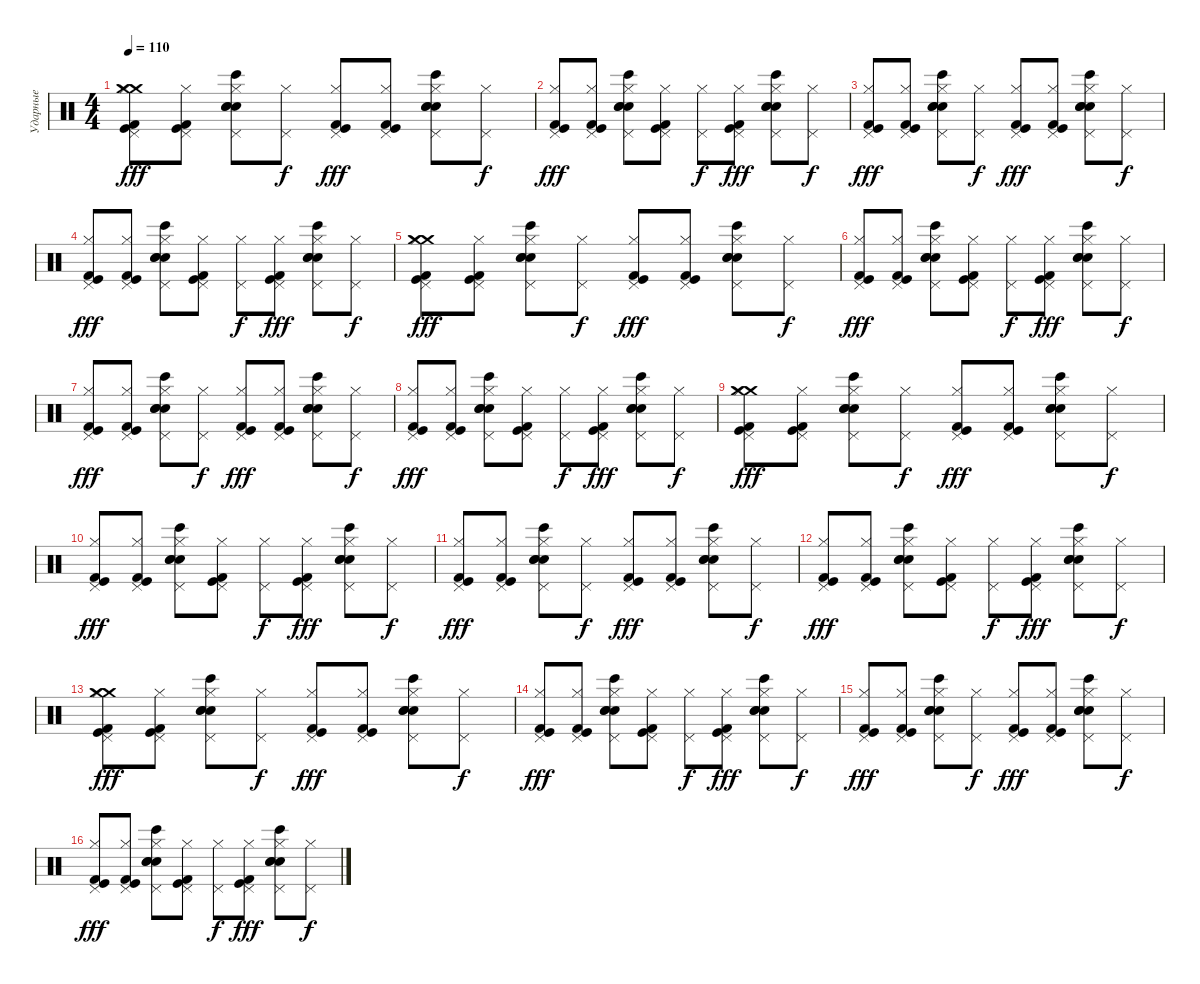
\track ("Ударные" "Ударные") {instrument percussion}
\staff {score}
\articulation defaults
\ts (4 4)
\tempo 110
\clef neutral
\ks c
("Crash medium (hit)" "Crash medium (hit)" "Kick (hit) 2" "Kick (hit)" "Hi-Hat (closed)" "Pedal Hi-Hat (hit)").8{dy fff} ("Kick (hit) 2" "Kick (hit)" "Hi-Hat (closed)" "Pedal Hi-Hat (hit)").8 ("Bongo High (hit)" "Snare (hit) 2" "Snare (hit) 2" "Snare (hit) 2" "Hi-Hat (closed)" "Pedal Hi-Hat (hit)").8 ("Hi-Hat (closed)" "Pedal Hi-Hat (hit)").8{dy f} ("Kick (hit) 2" "Kick (hit)" "Hi-Hat (closed)" "Pedal Hi-Hat (hit)").8{dy fff} ("Kick (hit) 2" "Kick (hit)" "Hi-Hat (closed)" "Pedal Hi-Hat (hit)").8 ("Bongo High (hit)" "Snare (hit) 2" "Snare (hit) 2" "Snare (hit) 2" "Hi-Hat (closed)" "Pedal Hi-Hat (hit)").8 ("Hi-Hat (closed)" "Pedal Hi-Hat (hit)").8{dy f} |
("Kick (hit) 2" "Kick (hit)" "Hi-Hat (closed)" "Pedal Hi-Hat (hit)").8{dy fff} ("Kick (hit) 2" "Kick (hit)" "Hi-Hat (closed)" "Pedal Hi-Hat (hit)").8 ("Bongo High (hit)" "Snare (hit) 2" "Snare (hit) 2" "Snare (hit) 2" "Hi-Hat (closed)" "Pedal Hi-Hat (hit)").8 ("Kick (hit) 2" "Kick (hit)" "Hi-Hat (closed)" "Pedal Hi-Hat (hit)").8 ("Hi-Hat (closed)" "Pedal Hi-Hat (hit)").8{dy f} ("Kick (hit) 2" "Kick (hit)" "Hi-Hat (closed)" "Pedal Hi-Hat (hit)").8{dy fff} ("Bongo High (hit)" "Snare (hit) 2" "Snare (hit) 2" "Snare (hit) 2" "Hi-Hat (closed)" "Pedal Hi-Hat (hit)").8 ("Hi-Hat (closed)" "Pedal Hi-Hat (hit)").8{dy f} |
("Kick (hit) 2" "Kick (hit)" "Hi-Hat (closed)" "Pedal Hi-Hat (hit)").8{dy fff} ("Kick (hit) 2" "Kick (hit)" "Hi-Hat (closed)" "Pedal Hi-Hat (hit)").8 ("Bongo High (hit)" "Snare (hit) 2" "Snare (hit) 2" "Snare (hit) 2" "Hi-Hat (closed)" "Pedal Hi-Hat (hit)").8 ("Hi-Hat (closed)" "Pedal Hi-Hat (hit)").8{dy f} ("Kick (hit) 2" "Kick (hit)" "Hi-Hat (closed)" "Pedal Hi-Hat (hit)").8{dy fff} ("Kick (hit) 2" "Kick (hit)" "Hi-Hat (closed)" "Pedal Hi-Hat (hit)").8 ("Bongo High (hit)" "Snare (hit) 2" "Snare (hit) 2" "Snare (hit) 2" "Hi-Hat (closed)" "Pedal Hi-Hat (hit)").8 ("Hi-Hat (closed)" "Pedal Hi-Hat (hit)").8{dy f} |
("Kick (hit) 2" "Kick (hit)" "Hi-Hat (closed)" "Pedal Hi-Hat (hit)").8{dy fff} ("Kick (hit) 2" "Kick (hit)" "Hi-Hat (closed)" "Pedal Hi-Hat (hit)").8 ("Bongo High (hit)" "Snare (hit) 2" "Snare (hit) 2" "Snare (hit) 2" "Hi-Hat (closed)" "Pedal Hi-Hat (hit)").8 ("Kick (hit) 2" "Kick (hit)" "Hi-Hat (closed)" "Pedal Hi-Hat (hit)").8 ("Hi-Hat (closed)" "Pedal Hi-Hat (hit)").8{dy f} ("Kick (hit) 2" "Kick (hit)" "Hi-Hat (closed)" "Pedal Hi-Hat (hit)").8{dy fff} ("Bongo High (hit)" "Snare (hit) 2" "Snare (hit) 2" "Snare (hit) 2" "Hi-Hat (closed)" "Pedal Hi-Hat (hit)").8 ("Hi-Hat (closed)" "Pedal Hi-Hat (hit)").8{dy f} |
("Crash medium (hit)" "Crash medium (hit)" "Kick (hit) 2" "Kick (hit)" "Hi-Hat (closed)" "Pedal Hi-Hat (hit)").8{dy fff} ("Kick (hit) 2" "Kick (hit)" "Hi-Hat (closed)" "Pedal Hi-Hat (hit)").8 ("Bongo High (hit)" "Snare (hit) 2" "Snare (hit) 2" "Snare (hit) 2" "Hi-Hat (closed)" "Pedal Hi-Hat (hit)").8 ("Hi-Hat (closed)" "Pedal Hi-Hat (hit)").8{dy f} ("Kick (hit) 2" "Kick (hit)" "Hi-Hat (closed)" "Pedal Hi-Hat (hit)").8{dy fff} ("Kick (hit) 2" "Kick (hit)" "Hi-Hat (closed)" "Pedal Hi-Hat (hit)").8 ("Bongo High (hit)" "Snare (hit) 2" "Snare (hit) 2" "Snare (hit) 2" "Hi-Hat (closed)" "Pedal Hi-Hat (hit)").8 ("Hi-Hat (closed)" "Pedal Hi-Hat (hit)").8{dy f} |
("Kick (hit) 2" "Kick (hit)" "Hi-Hat (closed)" "Pedal Hi-Hat (hit)").8{dy fff} ("Kick (hit) 2" "Kick (hit)" "Hi-Hat (closed)" "Pedal Hi-Hat (hit)").8 ("Bongo High (hit)" "Snare (hit) 2" "Snare (hit) 2" "Snare (hit) 2" "Hi-Hat (closed)" "Pedal Hi-Hat (hit)").8 ("Kick (hit) 2" "Kick (hit)" "Hi-Hat (closed)" "Pedal Hi-Hat (hit)").8 ("Hi-Hat (closed)" "Pedal Hi-Hat (hit)").8{dy f} ("Kick (hit) 2" "Kick (hit)" "Hi-Hat (closed)" "Pedal Hi-Hat (hit)").8{dy fff} ("Bongo High (hit)" "Snare (hit) 2" "Snare (hit) 2" "Snare (hit) 2" "Hi-Hat (closed)" "Pedal Hi-Hat (hit)").8 ("Hi-Hat (closed)" "Pedal Hi-Hat (hit)").8{dy f} |
("Kick (hit) 2" "Kick (hit)" "Hi-Hat (closed)" "Pedal Hi-Hat (hit)").8{dy fff} ("Kick (hit) 2" "Kick (hit)" "Hi-Hat (closed)" "Pedal Hi-Hat (hit)").8 ("Bongo High (hit)" "Snare (hit) 2" "Snare (hit) 2" "Snare (hit) 2" "Hi-Hat (closed)" "Pedal Hi-Hat (hit)").8 ("Hi-Hat (closed)" "Pedal Hi-Hat (hit)").8{dy f} ("Kick (hit) 2" "Kick (hit)" "Hi-Hat (closed)" "Pedal Hi-Hat (hit)").8{dy fff} ("Kick (hit) 2" "Kick (hit)" "Hi-Hat (closed)" "Pedal Hi-Hat (hit)").8 ("Bongo High (hit)" "Snare (hit) 2" "Snare (hit) 2" "Snare (hit) 2" "Hi-Hat (closed)" "Pedal Hi-Hat (hit)").8 ("Hi-Hat (closed)" "Pedal Hi-Hat (hit)").8{dy f} |
("Kick (hit) 2" "Kick (hit)" "Hi-Hat (closed)" "Pedal Hi-Hat (hit)").8{dy fff} ("Kick (hit) 2" "Kick (hit)" "Hi-Hat (closed)" "Pedal Hi-Hat (hit)").8 ("Bongo High (hit)" "Snare (hit) 2" "Snare (hit) 2" "Snare (hit) 2" "Hi-Hat (closed)" "Pedal Hi-Hat (hit)").8 ("Kick (hit) 2" "Kick (hit)" "Hi-Hat (closed)" "Pedal Hi-Hat (hit)").8 ("Hi-Hat (closed)" "Pedal Hi-Hat (hit)").8{dy f} ("Kick (hit) 2" "Kick (hit)" "Hi-Hat (closed)" "Pedal Hi-Hat (hit)").8{dy fff} ("Bongo High (hit)" "Snare (hit) 2" "Snare (hit) 2" "Snare (hit) 2" "Hi-Hat (closed)" "Pedal Hi-Hat (hit)").8 ("Hi-Hat (closed)" "Pedal Hi-Hat (hit)").8{dy f} |
("Crash medium (hit)" "Crash medium (hit)" "Kick (hit) 2" "Kick (hit)" "Hi-Hat (closed)" "Pedal Hi-Hat (hit)").8{dy fff} ("Kick (hit) 2" "Kick (hit)" "Hi-Hat (closed)" "Pedal Hi-Hat (hit)").8 ("Bongo High (hit)" "Snare (hit) 2" "Snare (hit) 2" "Snare (hit) 2" "Hi-Hat (closed)" "Pedal Hi-Hat (hit)").8 ("Hi-Hat (closed)" "Pedal Hi-Hat (hit)").8{dy f} ("Kick (hit) 2" "Kick (hit)" "Hi-Hat (closed)" "Pedal Hi-Hat (hit)").8{dy fff} ("Kick (hit) 2" "Kick (hit)" "Hi-Hat (closed)" "Pedal Hi-Hat (hit)").8 ("Bongo High (hit)" "Snare (hit) 2" "Snare (hit) 2" "Snare (hit) 2" "Hi-Hat (closed)" "Pedal Hi-Hat (hit)").8 ("Hi-Hat (closed)" "Pedal Hi-Hat (hit)").8{dy f} |
("Kick (hit) 2" "Kick (hit)" "Hi-Hat (closed)" "Pedal Hi-Hat (hit)").8{dy fff} ("Kick (hit) 2" "Kick (hit)" "Hi-Hat (closed)" "Pedal Hi-Hat (hit)").8 ("Bongo High (hit)" "Snare (hit) 2" "Snare (hit) 2" "Snare (hit) 2" "Hi-Hat (closed)" "Pedal Hi-Hat (hit)").8 ("Kick (hit) 2" "Kick (hit)" "Hi-Hat (closed)" "Pedal Hi-Hat (hit)").8 ("Hi-Hat (closed)" "Pedal Hi-Hat (hit)").8{dy f} ("Kick (hit) 2" "Kick (hit)" "Hi-Hat (closed)" "Pedal Hi-Hat (hit)").8{dy fff} ("Bongo High (hit)" "Snare (hit) 2" "Snare (hit) 2" "Snare (hit) 2" "Hi-Hat (closed)" "Pedal Hi-Hat (hit)").8 ("Hi-Hat (closed)" "Pedal Hi-Hat (hit)").8{dy f} |
("Kick (hit) 2" "Kick (hit)" "Hi-Hat (closed)" "Pedal Hi-Hat (hit)").8{dy fff} ("Kick (hit) 2" "Kick (hit)" "Hi-Hat (closed)" "Pedal Hi-Hat (hit)").8 ("Bongo High (hit)" "Snare (hit) 2" "Snare (hit) 2" "Snare (hit) 2" "Hi-Hat (closed)" "Pedal Hi-Hat (hit)").8 ("Hi-Hat (closed)" "Pedal Hi-Hat (hit)").8{dy f} ("Kick (hit) 2" "Kick (hit)" "Hi-Hat (closed)" "Pedal Hi-Hat (hit)").8{dy fff} ("Kick (hit) 2" "Kick (hit)" "Hi-Hat (closed)" "Pedal Hi-Hat (hit)").8 ("Bongo High (hit)" "Snare (hit) 2" "Snare (hit) 2" "Snare (hit) 2" "Hi-Hat (closed)" "Pedal Hi-Hat (hit)").8 ("Hi-Hat (closed)" "Pedal Hi-Hat (hit)").8{dy f} |
("Kick (hit) 2" "Kick (hit)" "Hi-Hat (closed)" "Pedal Hi-Hat (hit)").8{dy fff} ("Kick (hit) 2" "Kick (hit)" "Hi-Hat (closed)" "Pedal Hi-Hat (hit)").8 ("Bongo High (hit)" "Snare (hit) 2" "Snare (hit) 2" "Snare (hit) 2" "Hi-Hat (closed)" "Pedal Hi-Hat (hit)").8 ("Kick (hit) 2" "Kick (hit)" "Hi-Hat (closed)" "Pedal Hi-Hat (hit)").8 ("Hi-Hat (closed)" "Pedal Hi-Hat (hit)").8{dy f} ("Kick (hit) 2" "Kick (hit)" "Hi-Hat (closed)" "Pedal Hi-Hat (hit)").8{dy fff} ("Bongo High (hit)" "Snare (hit) 2" "Snare (hit) 2" "Snare (hit) 2" "Hi-Hat (closed)" "Pedal Hi-Hat (hit)").8 ("Hi-Hat (closed)" "Pedal Hi-Hat (hit)").8{dy f} |
("Crash medium (hit)" "Crash medium (hit)" "Kick (hit) 2" "Kick (hit)" "Hi-Hat (closed)" "Pedal Hi-Hat (hit)").8{dy fff} ("Kick (hit) 2" "Kick (hit)" "Hi-Hat (closed)" "Pedal Hi-Hat (hit)").8 ("Bongo High (hit)" "Snare (hit) 2" "Snare (hit) 2" "Snare (hit) 2" "Hi-Hat (closed)" "Pedal Hi-Hat (hit)").8 ("Hi-Hat (closed)" "Pedal Hi-Hat (hit)").8{dy f} ("Kick (hit) 2" "Kick (hit)" "Hi-Hat (closed)" "Pedal Hi-Hat (hit)").8{dy fff} ("Kick (hit) 2" "Kick (hit)" "Hi-Hat (closed)" "Pedal Hi-Hat (hit)").8 ("Bongo High (hit)" "Snare (hit) 2" "Snare (hit) 2" "Snare (hit) 2" "Hi-Hat (closed)" "Pedal Hi-Hat (hit)").8 ("Hi-Hat (closed)" "Pedal Hi-Hat (hit)").8{dy f} |
("Kick (hit) 2" "Kick (hit)" "Hi-Hat (closed)" "Pedal Hi-Hat (hit)").8{dy fff} ("Kick (hit) 2" "Kick (hit)" "Hi-Hat (closed)" "Pedal Hi-Hat (hit)").8 ("Bongo High (hit)" "Snare (hit) 2" "Snare (hit) 2" "Snare (hit) 2" "Hi-Hat (closed)" "Pedal Hi-Hat (hit)").8 ("Kick (hit) 2" "Kick (hit)" "Hi-Hat (closed)" "Pedal Hi-Hat (hit)").8 ("Hi-Hat (closed)" "Pedal Hi-Hat (hit)").8{dy f} ("Kick (hit) 2" "Kick (hit)" "Hi-Hat (closed)" "Pedal Hi-Hat (hit)").8{dy fff} ("Bongo High (hit)" "Snare (hit) 2" "Snare (hit) 2" "Snare (hit) 2" "Hi-Hat (closed)" "Pedal Hi-Hat (hit)").8 ("Hi-Hat (closed)" "Pedal Hi-Hat (hit)").8{dy f} |
("Kick (hit) 2" "Kick (hit)" "Hi-Hat (closed)" "Pedal Hi-Hat (hit)").8{dy fff} ("Kick (hit) 2" "Kick (hit)" "Hi-Hat (closed)" "Pedal Hi-Hat (hit)").8 ("Bongo High (hit)" "Snare (hit) 2" "Snare (hit) 2" "Snare (hit) 2" "Hi-Hat (closed)" "Pedal Hi-Hat (hit)").8 ("Hi-Hat (closed)" "Pedal Hi-Hat (hit)").8{dy f} ("Kick (hit) 2" "Kick (hit)" "Hi-Hat (closed)" "Pedal Hi-Hat (hit)").8{dy fff} ("Kick (hit) 2" "Kick (hit)" "Hi-Hat (closed)" "Pedal Hi-Hat (hit)").8 ("Bongo High (hit)" "Snare (hit) 2" "Snare (hit) 2" "Snare (hit) 2" "Hi-Hat (closed)" "Pedal Hi-Hat (hit)").8 ("Hi-Hat (closed)" "Pedal Hi-Hat (hit)").8{dy f} |
("Kick (hit) 2" "Kick (hit)" "Hi-Hat (closed)" "Pedal Hi-Hat (hit)").8{dy fff} ("Kick (hit) 2" "Kick (hit)" "Hi-Hat (closed)" "Pedal Hi-Hat (hit)").8 ("Bongo High (hit)" "Snare (hit) 2" "Snare (hit) 2" "Snare (hit) 2" "Hi-Hat (closed)" "Pedal Hi-Hat (hit)").8 ("Kick (hit) 2" "Kick (hit)" "Hi-Hat (closed)" "Pedal Hi-Hat (hit)").8 ("Hi-Hat (closed)" "Pedal Hi-Hat (hit)").8{dy f} ("Kick (hit) 2" "Kick (hit)" "Hi-Hat (closed)" "Pedal Hi-Hat (hit)").8{dy fff} ("Bongo High (hit)" "Snare (hit) 2" "Snare (hit) 2" "Snare (hit) 2" "Hi-Hat (closed)" "Pedal Hi-Hat (hit)").8 ("Hi-Hat (closed)" "Pedal Hi-Hat (hit)").8{dy f}
